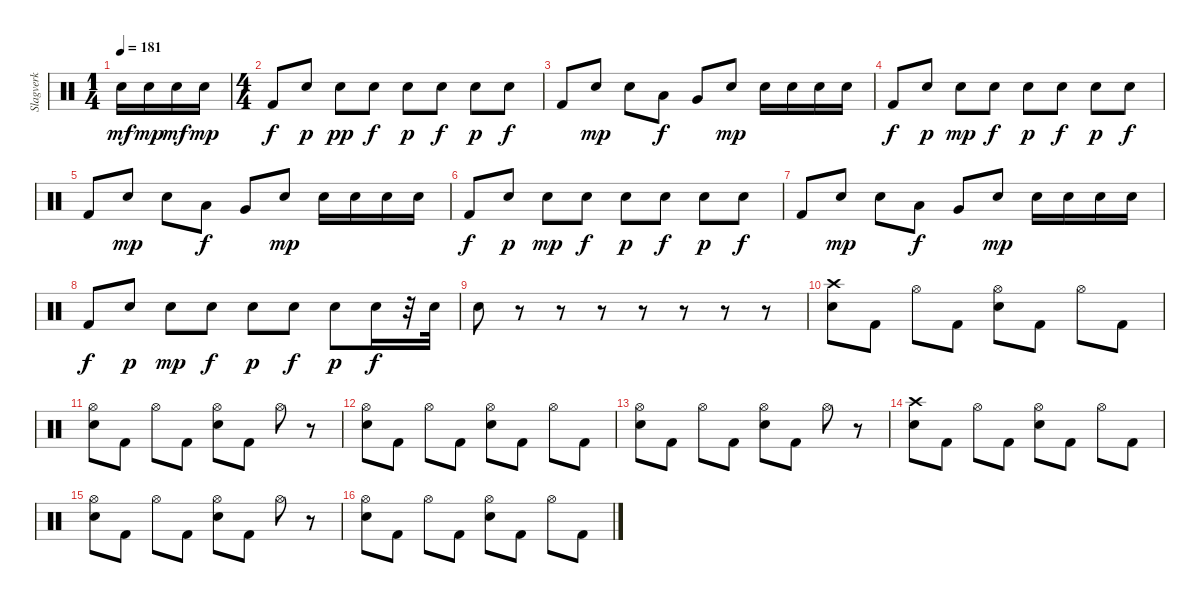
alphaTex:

\track ("Slagverk" "Slagverk") {instrument percussion}
\staff {score}
\articulation defaults
\ts (1 4)
\tempo 181
\clef neutral
\ks c "Electric Snare (hit)".16{dy mf volume 10} "Electric Snare (hit)".16{dy mp} "Electric Snare (hit)".16{dy mf} "Electric Snare (hit)".16{dy mp}
|
\ts (4 4)
"Kick (hit) 2".8{dy f} "Electric Snare (hit)".8{dy p} "Electric Snare (hit)".8{dy pp} "Electric Snare (hit)".8{dy f} "Electric Snare (hit)".8{dy p} "Electric Snare (hit)".8{dy f} "Electric Snare (hit)".8{dy p} "Electric Snare (hit)".8{dy f} |
"Kick (hit) 2".8 "Electric Snare (hit)".8{dy mp} "Electric Snare (hit)".8 "Low Tom (hit)".8{dy f} "Very Low Tom (hit)".8 "Electric Snare (hit)".8{dy mp} "Electric Snare (hit)".16 "Electric Snare (hit)".16 "Electric Snare (hit)".16 "Electric Snare (hit)".16 |
"Kick (hit) 2".8{dy f} "Electric Snare (hit)".8{dy p} "Electric Snare (hit)".8{dy mp} "Electric Snare (hit)".8{dy f} "Electric Snare (hit)".8{dy p} "Electric Snare (hit)".8{dy f} "Electric Snare (hit)".8{dy p} "Electric Snare (hit)".8{dy f} |
"Kick (hit) 2".8 "Electric Snare (hit)".8{dy mp} "Electric Snare (hit)".8 "Low Tom (hit)".8{dy f} "Very Low Tom (hit)".8 "Electric Snare (hit)".8{dy mp} "Electric Snare (hit)".16 "Electric Snare (hit)".16 "Electric Snare (hit)".16 "Electric Snare (hit)".16 |
"Kick (hit) 2".8{dy f} "Electric Snare (hit)".8{dy p} "Electric Snare (hit)".8{dy mp} "Electric Snare (hit)".8{dy f} "Electric Snare (hit)".8{dy p} "Electric Snare (hit)".8{dy f} "Electric Snare (hit)".8{dy p} "Electric Snare (hit)".8{dy f} |
"Kick (hit) 2".8 "Electric Snare (hit)".8{dy mp} "Electric Snare (hit)".8 "Low Tom (hit)".8{dy f} "Very Low Tom (hit)".8 "Electric Snare (hit)".8{dy mp} "Electric Snare (hit)".16 "Electric Snare (hit)".16 "Electric Snare (hit)".16 "Electric Snare (hit)".16 |
"Kick (hit) 2".8{dy f} "Electric Snare (hit)".8{dy p} "Electric Snare (hit)".8{dy mp} "Electric Snare (hit)".8{dy f} "Electric Snare (hit)".8{dy p} "Electric Snare (hit)".8{dy f} "Electric Snare (hit)".8{dy p} "Electric Snare (hit)".16{dy f} r.32 "Electric Snare (hit)".32 |
"Electric Snare (hit)".8 r.8 r.8 r.8 r.8 r.8 r.8 r.8 |
("Crash high (hit)" "Electric Snare (hit)").8{volume 16 balance 8} "Kick (hit) 2".8 "Hi-Hat (open)".8 "Kick (hit) 2".8 ("Hi-Hat (open)" "Electric Snare (hit)").8 "Kick (hit) 2".8 "Hi-Hat (open)".8 "Kick (hit) 2".8 |
("Hi-Hat (open)" "Electric Snare (hit)").8 "Kick (hit) 2".8 "Hi-Hat (open)".8 "Kick (hit) 2".8 ("Hi-Hat (open)" "Electric Snare (hit)").8 "Kick (hit) 2".8 "Hi-Hat (open)".8 r.8 |
("Hi-Hat (open)" "Electric Snare (hit)").8{volume 16 balance 8} "Kick (hit) 2".8 "Hi-Hat (open)".8 "Kick (hit) 2".8 ("Hi-Hat (open)" "Electric Snare (hit)").8 "Kick (hit) 2".8 "Hi-Hat (open)".8 "Kick (hit) 2".8 |
("Hi-Hat (open)" "Electric Snare (hit)").8 "Kick (hit) 2".8 "Hi-Hat (open)".8 "Kick (hit) 2".8 ("Hi-Hat (open)" "Electric Snare (hit)").8 "Kick (hit) 2".8 "Hi-Hat (open)".8 r.8 |
("Crash high (hit)" "Electric Snare (hit)").8{volume 16 balance 8} "Kick (hit) 2".8 "Hi-Hat (open)".8 "Kick (hit) 2".8 ("Hi-Hat (open)" "Electric Snare (hit)").8 "Kick (hit) 2".8 "Hi-Hat (open)".8 "Kick (hit) 2".8 |
("Hi-Hat (open)" "Electric Snare (hit)").8 "Kick (hit) 2".8 "Hi-Hat (open)".8 "Kick (hit) 2".8 ("Hi-Hat (open)" "Electric Snare (hit)").8 "Kick (hit) 2".8 "Hi-Hat (open)".8 r.8 |
("Hi-Hat (open)" "Electric Snare (hit)").8{volume 16 balance 8} "Kick (hit) 2".8 "Hi-Hat (open)".8 "Kick (hit) 2".8 ("Hi-Hat (open)" "Electric Snare (hit)").8 "Kick (hit) 2".8 "Hi-Hat (open)".8 "Kick (hit) 2".8
